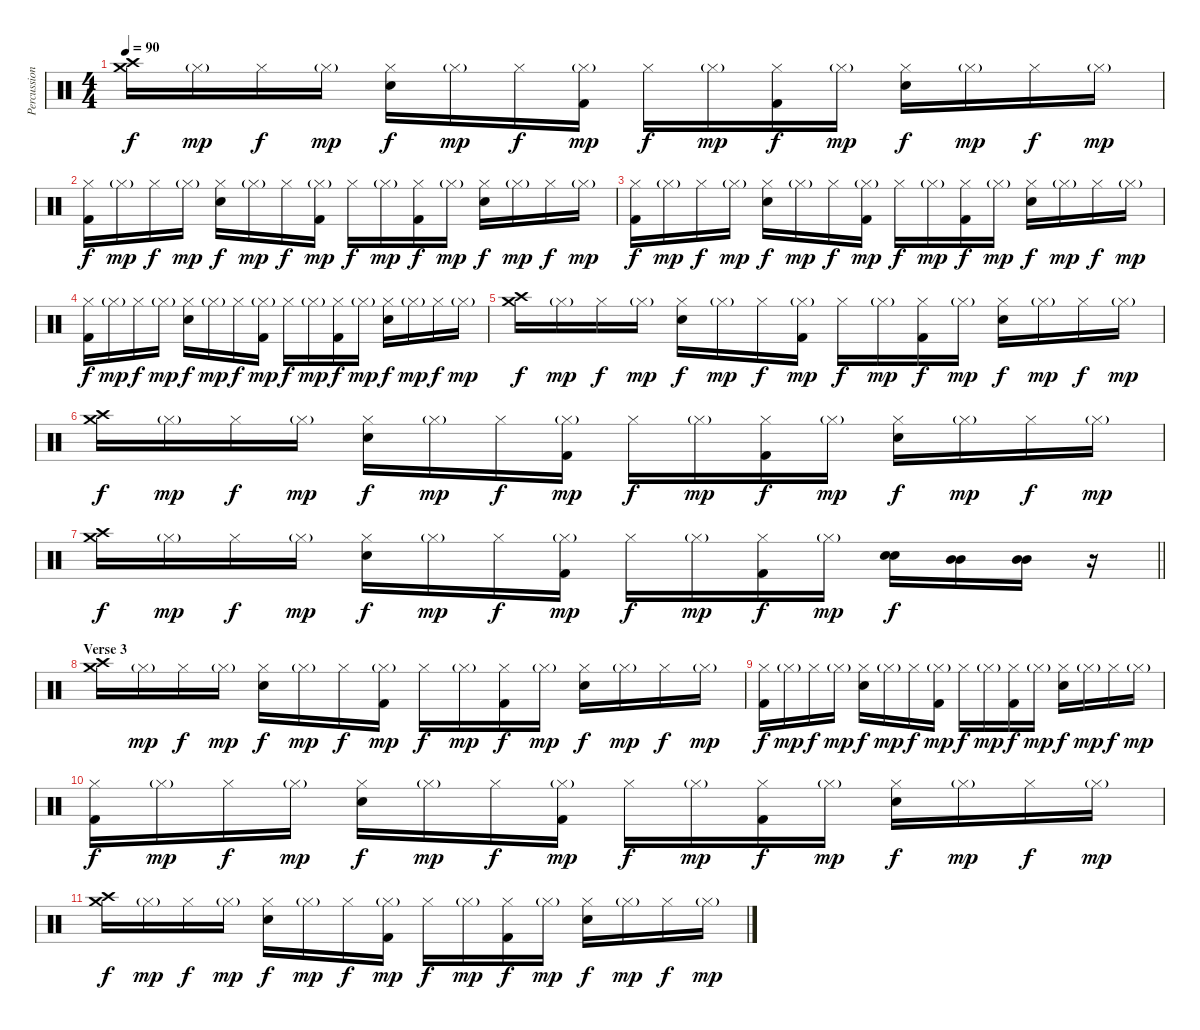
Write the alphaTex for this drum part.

\track ("Percussion" "Percussion") {instrument percussion}
\staff {score}
\articulation defaults
\ts (4 4)
\tempo 90
\clef neutral
\ks c
("Crash medium (hit)" "Crash high (hit)").16{dy f} "Hi-Hat (closed)"{g}.16{dy mp} "Hi-Hat (closed)".16{dy f} "Hi-Hat (closed)"{g}.16{dy mp} ("Hi-Hat (closed)" "Electric Snare (hit)").16{dy f} "Hi-Hat (closed)"{g}.16{dy mp} "Hi-Hat (closed)".16{dy f} ("Hi-Hat (closed)"{g} "Kick (hit) 2").16{dy mp} "Hi-Hat (closed)".16{dy f} "Hi-Hat (closed)"{g}.16{dy mp} ("Hi-Hat (closed)" "Kick (hit) 2").16{dy f} "Hi-Hat (closed)"{g}.16{dy mp} ("Hi-Hat (closed)" "Electric Snare (hit)").16{dy f} "Hi-Hat (closed)"{g}.16{dy mp} "Hi-Hat (closed)".16{dy f} "Hi-Hat (closed)"{g}.16{dy mp} |
("Hi-Hat (closed)" "Kick (hit) 2").16{dy f} "Hi-Hat (closed)"{g}.16{dy mp} "Hi-Hat (closed)".16{dy f} "Hi-Hat (closed)"{g}.16{dy mp} ("Hi-Hat (closed)" "Electric Snare (hit)").16{dy f} "Hi-Hat (closed)"{g}.16{dy mp} "Hi-Hat (closed)".16{dy f} ("Hi-Hat (closed)"{g} "Kick (hit) 2").16{dy mp} "Hi-Hat (closed)".16{dy f} "Hi-Hat (closed)"{g}.16{dy mp} ("Hi-Hat (closed)" "Kick (hit) 2").16{dy f} "Hi-Hat (closed)"{g}.16{dy mp} ("Hi-Hat (closed)" "Electric Snare (hit)").16{dy f} "Hi-Hat (closed)"{g}.16{dy mp} "Hi-Hat (closed)".16{dy f} "Hi-Hat (closed)"{g}.16{dy mp} |
("Hi-Hat (closed)" "Kick (hit) 2").16{dy f} "Hi-Hat (closed)"{g}.16{dy mp} "Hi-Hat (closed)".16{dy f} "Hi-Hat (closed)"{g}.16{dy mp} ("Hi-Hat (closed)" "Electric Snare (hit)").16{dy f} "Hi-Hat (closed)"{g}.16{dy mp} "Hi-Hat (closed)".16{dy f} ("Hi-Hat (closed)"{g} "Kick (hit) 2").16{dy mp} "Hi-Hat (closed)".16{dy f} "Hi-Hat (closed)"{g}.16{dy mp} ("Hi-Hat (closed)" "Kick (hit) 2").16{dy f} "Hi-Hat (closed)"{g}.16{dy mp} ("Hi-Hat (closed)" "Electric Snare (hit)").16{dy f} "Hi-Hat (closed)"{g}.16{dy mp} "Hi-Hat (closed)".16{dy f} "Hi-Hat (closed)"{g}.16{dy mp} |
("Hi-Hat (closed)" "Kick (hit) 2").16{dy f} "Hi-Hat (closed)"{g}.16{dy mp} "Hi-Hat (closed)".16{dy f} "Hi-Hat (closed)"{g}.16{dy mp} ("Hi-Hat (closed)" "Electric Snare (hit)").16{dy f} "Hi-Hat (closed)"{g}.16{dy mp} "Hi-Hat (closed)".16{dy f} ("Hi-Hat (closed)"{g} "Kick (hit) 2").16{dy mp} "Hi-Hat (closed)".16{dy f} "Hi-Hat (closed)"{g}.16{dy mp} ("Hi-Hat (closed)" "Kick (hit) 2").16{dy f} "Hi-Hat (closed)"{g}.16{dy mp} ("Hi-Hat (closed)" "Electric Snare (hit)").16{dy f} "Hi-Hat (closed)"{g}.16{dy mp} "Hi-Hat (closed)".16{dy f} "Hi-Hat (closed)"{g}.16{dy mp} |
("Crash medium (hit)" "Crash high (hit)").16{dy f} "Hi-Hat (closed)"{g}.16{dy mp} "Hi-Hat (closed)".16{dy f} "Hi-Hat (closed)"{g}.16{dy mp} ("Hi-Hat (closed)" "Electric Snare (hit)").16{dy f} "Hi-Hat (closed)"{g}.16{dy mp} "Hi-Hat (closed)".16{dy f} ("Hi-Hat (closed)"{g} "Kick (hit) 2").16{dy mp} "Hi-Hat (closed)".16{dy f} "Hi-Hat (closed)"{g}.16{dy mp} ("Hi-Hat (closed)" "Kick (hit) 2").16{dy f} "Hi-Hat (closed)"{g}.16{dy mp} ("Hi-Hat (closed)" "Electric Snare (hit)").16{dy f} "Hi-Hat (closed)"{g}.16{dy mp} "Hi-Hat (closed)".16{dy f} "Hi-Hat (closed)"{g}.16{dy mp} |
("Crash medium (hit)" "Crash high (hit)").16{dy f} "Hi-Hat (closed)"{g}.16{dy mp} "Hi-Hat (closed)".16{dy f} "Hi-Hat (closed)"{g}.16{dy mp} ("Hi-Hat (closed)" "Electric Snare (hit)").16{dy f} "Hi-Hat (closed)"{g}.16{dy mp} "Hi-Hat (closed)".16{dy f} ("Hi-Hat (closed)"{g} "Kick (hit) 2").16{dy mp} "Hi-Hat (closed)".16{dy f} "Hi-Hat (closed)"{g}.16{dy mp} ("Hi-Hat (closed)" "Kick (hit) 2").16{dy f} "Hi-Hat (closed)"{g}.16{dy mp} ("Hi-Hat (closed)" "Electric Snare (hit)").16{dy f} "Hi-Hat (closed)"{g}.16{dy mp} "Hi-Hat (closed)".16{dy f} "Hi-Hat (closed)"{g}.16{dy mp} |
\barLineRight lightlight
("Crash medium (hit)" "Crash high (hit)").16{dy f} "Hi-Hat (closed)"{g}.16{dy mp} "Hi-Hat (closed)".16{dy f} "Hi-Hat (closed)"{g}.16{dy mp} ("Hi-Hat (closed)" "Electric Snare (hit)").16{dy f} "Hi-Hat (closed)"{g}.16{dy mp} "Hi-Hat (closed)".16{dy f} ("Hi-Hat (closed)"{g} "Kick (hit) 2").16{dy mp} "Hi-Hat (closed)".16{dy f} "Hi-Hat (closed)"{g}.16{dy mp} ("Hi-Hat (closed)" "Kick (hit) 2").16{dy f} "Hi-Hat (closed)"{g}.16{dy mp} ("Electric Snare (hit)" "Electric Snare (hit)").16{dy f} ("Mid Tom (hit)" "Mid Tom (hit)").16 ("Mid Tom (hit)" "Mid Tom (hit)").16 r.16 |
\section ("" "Verse 3")
("Crash medium (hit)" "Crash high (hit)").16 "Hi-Hat (closed)"{g}.16{dy mp} "Hi-Hat (closed)".16{dy f} "Hi-Hat (closed)"{g}.16{dy mp} ("Hi-Hat (closed)" "Electric Snare (hit)").16{dy f} "Hi-Hat (closed)"{g}.16{dy mp} "Hi-Hat (closed)".16{dy f} ("Hi-Hat (closed)"{g} "Kick (hit) 2").16{dy mp} "Hi-Hat (closed)".16{dy f} "Hi-Hat (closed)"{g}.16{dy mp} ("Hi-Hat (closed)" "Kick (hit) 2").16{dy f} "Hi-Hat (closed)"{g}.16{dy mp} ("Hi-Hat (closed)" "Electric Snare (hit)").16{dy f} "Hi-Hat (closed)"{g}.16{dy mp} "Hi-Hat (closed)".16{dy f} "Hi-Hat (closed)"{g}.16{dy mp} |
("Hi-Hat (closed)" "Kick (hit) 2").16{dy f} "Hi-Hat (closed)"{g}.16{dy mp} "Hi-Hat (closed)".16{dy f} "Hi-Hat (closed)"{g}.16{dy mp} ("Hi-Hat (closed)" "Electric Snare (hit)").16{dy f} "Hi-Hat (closed)"{g}.16{dy mp} "Hi-Hat (closed)".16{dy f} ("Hi-Hat (closed)"{g} "Kick (hit) 2").16{dy mp} "Hi-Hat (closed)".16{dy f} "Hi-Hat (closed)"{g}.16{dy mp} ("Hi-Hat (closed)" "Kick (hit) 2").16{dy f} "Hi-Hat (closed)"{g}.16{dy mp} ("Hi-Hat (closed)" "Electric Snare (hit)").16{dy f} "Hi-Hat (closed)"{g}.16{dy mp} "Hi-Hat (closed)".16{dy f} "Hi-Hat (closed)"{g}.16{dy mp} |
("Hi-Hat (closed)" "Kick (hit) 2").16{dy f} "Hi-Hat (closed)"{g}.16{dy mp} "Hi-Hat (closed)".16{dy f} "Hi-Hat (closed)"{g}.16{dy mp} ("Hi-Hat (closed)" "Electric Snare (hit)").16{dy f} "Hi-Hat (closed)"{g}.16{dy mp} "Hi-Hat (closed)".16{dy f} ("Hi-Hat (closed)"{g} "Kick (hit) 2").16{dy mp} "Hi-Hat (closed)".16{dy f} "Hi-Hat (closed)"{g}.16{dy mp} ("Hi-Hat (closed)" "Kick (hit) 2").16{dy f} "Hi-Hat (closed)"{g}.16{dy mp} ("Hi-Hat (closed)" "Electric Snare (hit)").16{dy f} "Hi-Hat (closed)"{g}.16{dy mp} "Hi-Hat (closed)".16{dy f} "Hi-Hat (closed)"{g}.16{dy mp} |
("Crash medium (hit)" "Crash high (hit)").16{dy f} "Hi-Hat (closed)"{g}.16{dy mp} "Hi-Hat (closed)".16{dy f} "Hi-Hat (closed)"{g}.16{dy mp} ("Hi-Hat (closed)" "Electric Snare (hit)").16{dy f} "Hi-Hat (closed)"{g}.16{dy mp} "Hi-Hat (closed)".16{dy f} ("Hi-Hat (closed)"{g} "Kick (hit) 2").16{dy mp} "Hi-Hat (closed)".16{dy f} "Hi-Hat (closed)"{g}.16{dy mp} ("Hi-Hat (closed)" "Kick (hit) 2").16{dy f} "Hi-Hat (closed)"{g}.16{dy mp} ("Hi-Hat (closed)" "Electric Snare (hit)").16{dy f} "Hi-Hat (closed)"{g}.16{dy mp} "Hi-Hat (closed)".16{dy f} "Hi-Hat (closed)"{g}.16{dy mp}
